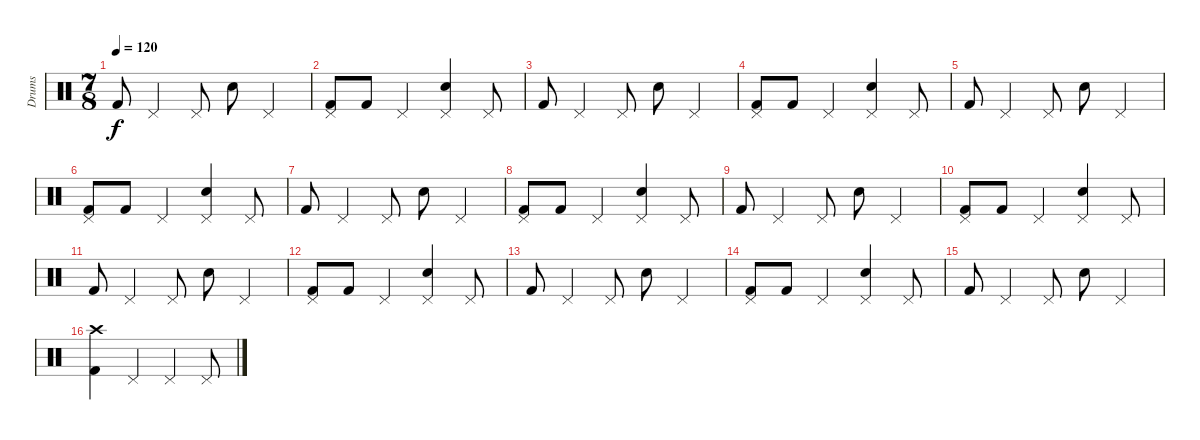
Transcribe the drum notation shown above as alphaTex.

\track ("Drums" "Drums") {instrument percussion}
\staff {score}
\articulation defaults
\ts (7 8)
\tempo 120
\clef neutral
\ks c "Kick (hit) 2".8{dy f} "Pedal Hi-Hat (hit)".4 "Pedal Hi-Hat (hit)".8 "Electric Snare (hit)".8 "Pedal Hi-Hat (hit)".4
|
("Pedal Hi-Hat (hit)" "Kick (hit) 2").8 "Kick (hit) 2".8 "Pedal Hi-Hat (hit)".4 ("Pedal Hi-Hat (hit)" "Electric Snare (hit)").4 "Pedal Hi-Hat (hit)".8 |
"Kick (hit) 2".8 "Pedal Hi-Hat (hit)".4 "Pedal Hi-Hat (hit)".8 "Electric Snare (hit)".8 "Pedal Hi-Hat (hit)".4 |
("Pedal Hi-Hat (hit)" "Kick (hit) 2").8 "Kick (hit) 2".8 "Pedal Hi-Hat (hit)".4 ("Pedal Hi-Hat (hit)" "Electric Snare (hit)").4 "Pedal Hi-Hat (hit)".8 |
"Kick (hit) 2".8 "Pedal Hi-Hat (hit)".4 "Pedal Hi-Hat (hit)".8 "Electric Snare (hit)".8 "Pedal Hi-Hat (hit)".4 |
("Pedal Hi-Hat (hit)" "Kick (hit) 2").8 "Kick (hit) 2".8 "Pedal Hi-Hat (hit)".4 ("Pedal Hi-Hat (hit)" "Electric Snare (hit)").4 "Pedal Hi-Hat (hit)".8 |
"Kick (hit) 2".8 "Pedal Hi-Hat (hit)".4 "Pedal Hi-Hat (hit)".8 "Electric Snare (hit)".8 "Pedal Hi-Hat (hit)".4 |
("Pedal Hi-Hat (hit)" "Kick (hit) 2").8 "Kick (hit) 2".8 "Pedal Hi-Hat (hit)".4 ("Pedal Hi-Hat (hit)" "Electric Snare (hit)").4 "Pedal Hi-Hat (hit)".8 |
"Kick (hit) 2".8 "Pedal Hi-Hat (hit)".4 "Pedal Hi-Hat (hit)".8 "Electric Snare (hit)".8 "Pedal Hi-Hat (hit)".4 |
("Pedal Hi-Hat (hit)" "Kick (hit) 2").8 "Kick (hit) 2".8 "Pedal Hi-Hat (hit)".4 ("Pedal Hi-Hat (hit)" "Electric Snare (hit)").4 "Pedal Hi-Hat (hit)".8 |
"Kick (hit) 2".8 "Pedal Hi-Hat (hit)".4 "Pedal Hi-Hat (hit)".8 "Electric Snare (hit)".8 "Pedal Hi-Hat (hit)".4 |
("Pedal Hi-Hat (hit)" "Kick (hit) 2").8 "Kick (hit) 2".8 "Pedal Hi-Hat (hit)".4 ("Pedal Hi-Hat (hit)" "Electric Snare (hit)").4 "Pedal Hi-Hat (hit)".8 |
"Kick (hit) 2".8 "Pedal Hi-Hat (hit)".4 "Pedal Hi-Hat (hit)".8 "Electric Snare (hit)".8 "Pedal Hi-Hat (hit)".4 |
("Pedal Hi-Hat (hit)" "Kick (hit) 2").8 "Kick (hit) 2".8 "Pedal Hi-Hat (hit)".4 ("Pedal Hi-Hat (hit)" "Electric Snare (hit)").4 "Pedal Hi-Hat (hit)".8 |
"Kick (hit) 2".8 "Pedal Hi-Hat (hit)".4 "Pedal Hi-Hat (hit)".8 "Electric Snare (hit)".8 "Pedal Hi-Hat (hit)".4 |
("Crash high (hit)" "Kick (hit) 2").4 "Pedal Hi-Hat (hit)".4 "Pedal Hi-Hat (hit)".4 "Pedal Hi-Hat (hit)".8
